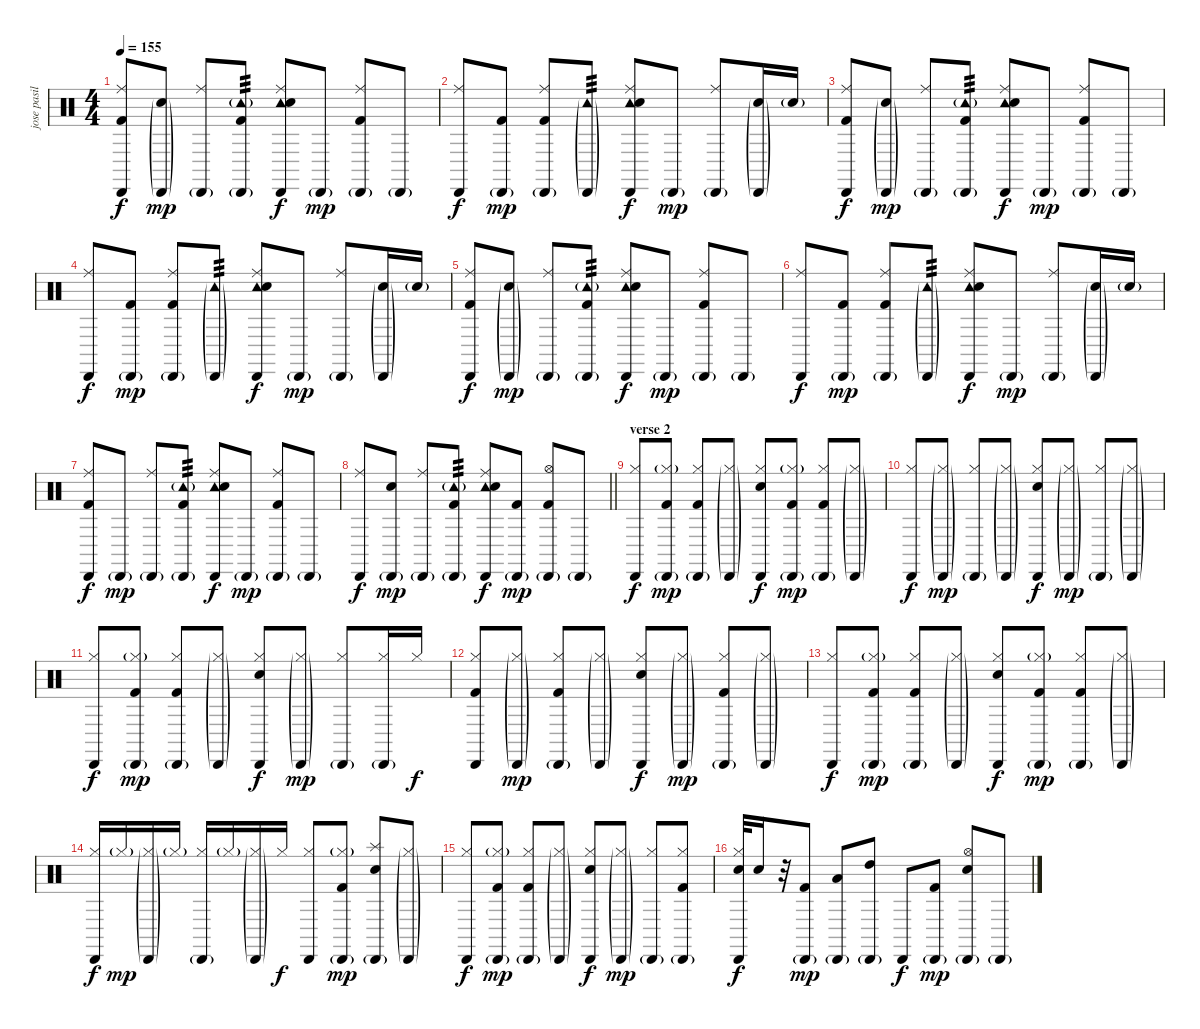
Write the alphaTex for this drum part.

\track ("jose pasillas" "jose pasil") {instrument percussion}
\staff {score}
\articulation defaults
\ts (4 4)
\tempo 155
\clef neutral
\ks c
("Cabasa (hit)" "Ride (middle)" "Kick (hit) 2").8{dy f} ("Cabasa (hit)"{g} "Snare (hit) 2"{g}).8{dy mp} ("Cabasa (hit)"{g} "Ride (middle)").8 ("Cabasa (hit)"{g} "Tambourine (hit)"{g} "Kick (hit) 2").8{tp 3} ("Cabasa (hit)" "Tambourine (hit)" "Ride (middle)" "Snare (hit) 2").8{dy f} "Cabasa (hit)"{g}.8{dy mp} ("Cabasa (hit)"{g} "Ride (middle)" "Kick (hit) 2").8 "Cabasa (hit)"{g}.8 |
("Cabasa (hit)" "Ride (middle)").8{dy f} ("Cabasa (hit)"{g} "Kick (hit) 2").8{dy mp} ("Cabasa (hit)"{g} "Ride (middle)" "Kick (hit) 2").8 ("Cabasa (hit)"{g} "Tambourine (hit)"{g}).8{tp 3} ("Cabasa (hit)" "Tambourine (hit)" "Ride (middle)" "Snare (hit) 2").8{dy f} "Cabasa (hit)"{g}.8{dy mp} ("Cabasa (hit)"{g} "Ride (middle)").8 ("Cabasa (hit)"{g} "Snare (hit) 2"{g}).16 "Snare (hit) 2"{g}.16 |
("Cabasa (hit)" "Ride (middle)" "Kick (hit) 2").8{dy f} ("Cabasa (hit)"{g} "Snare (hit) 2"{g}).8{dy mp} ("Cabasa (hit)"{g} "Ride (middle)").8 ("Cabasa (hit)"{g} "Tambourine (hit)"{g} "Kick (hit) 2").8{tp 3} ("Cabasa (hit)" "Tambourine (hit)" "Ride (middle)" "Snare (hit) 2").8{dy f} "Cabasa (hit)"{g}.8{dy mp} ("Cabasa (hit)"{g} "Ride (middle)" "Kick (hit) 2").8 "Cabasa (hit)"{g}.8 |
("Cabasa (hit)" "Ride (middle)").8{dy f} ("Cabasa (hit)"{g} "Kick (hit) 2").8{dy mp} ("Cabasa (hit)"{g} "Ride (middle)" "Kick (hit) 2").8 ("Cabasa (hit)"{g} "Tambourine (hit)"{g}).8{tp 3} ("Cabasa (hit)" "Tambourine (hit)" "Ride (middle)" "Snare (hit) 2").8{dy f} "Cabasa (hit)"{g}.8{dy mp} ("Cabasa (hit)"{g} "Ride (middle)").8 ("Cabasa (hit)"{g} "Snare (hit) 2"{g}).16 "Snare (hit) 2"{g}.16 |
("Cabasa (hit)" "Ride (middle)" "Kick (hit) 2").8{dy f} ("Cabasa (hit)"{g} "Snare (hit) 2"{g}).8{dy mp} ("Cabasa (hit)"{g} "Ride (middle)").8 ("Cabasa (hit)"{g} "Tambourine (hit)"{g} "Kick (hit) 2").8{tp 3} ("Cabasa (hit)" "Tambourine (hit)" "Ride (middle)" "Snare (hit) 2").8{dy f} "Cabasa (hit)"{g}.8{dy mp} ("Cabasa (hit)"{g} "Ride (middle)" "Kick (hit) 2").8 "Cabasa (hit)"{g}.8 |
("Cabasa (hit)" "Ride (middle)").8{dy f} ("Cabasa (hit)"{g} "Kick (hit) 2").8{dy mp} ("Cabasa (hit)"{g} "Ride (middle)" "Kick (hit) 2").8 ("Cabasa (hit)"{g} "Tambourine (hit)"{g}).8{tp 3} ("Cabasa (hit)" "Tambourine (hit)" "Ride (middle)" "Snare (hit) 2").8{dy f} "Cabasa (hit)"{g}.8{dy mp} ("Cabasa (hit)"{g} "Ride (middle)").8 ("Cabasa (hit)"{g} "Snare (hit) 2"{g}).16 "Snare (hit) 2"{g}.16 |
("Cabasa (hit)" "Ride (middle)" "Kick (hit) 2").8{dy f} "Cabasa (hit)"{g}.8{dy mp} ("Cabasa (hit)"{g} "Ride (middle)").8 ("Cabasa (hit)"{g} "Tambourine (hit)"{g} "Kick (hit) 2").8{tp 3} ("Cabasa (hit)" "Tambourine (hit)" "Ride (middle)" "Snare (hit) 2").8{dy f} "Cabasa (hit)"{g}.8{dy mp} ("Cabasa (hit)"{g} "Ride (middle)" "Kick (hit) 2").8 "Cabasa (hit)"{g}.8 |
\barLineRight lightlight
("Cabasa (hit)" "Ride (middle)").8{dy f} ("Cabasa (hit)"{g} "Snare (hit) 2").8{dy mp} ("Cabasa (hit)"{g} "Ride (middle)").8 ("Cabasa (hit)"{g} "Tambourine (hit)"{g} "Kick (hit) 2").8{tp 3} ("Cabasa (hit)" "Tambourine (hit)" "Ride (middle)" "Snare (hit) 2").8{dy f} ("Cabasa (hit)"{g} "Kick (hit) 2").8{dy mp} ("Cabasa (hit)"{g} "Hi-Hat (open)" "Kick (hit) 2").8 "Cabasa (hit)"{g}.8 |
\section ("" "verse 2")
("Cabasa (hit)" "Hi-Hat (closed)").8{dy f} ("Cabasa (hit)"{g} "Hi-Hat (closed)"{g} "Kick (hit) 2").8{dy mp} ("Cabasa (hit)"{g} "Hi-Hat (closed)" "Kick (hit) 2").8 ("Cabasa (hit)"{g} "Hi-Hat (closed)"{g}).8 ("Cabasa (hit)" "Hi-Hat (closed)" "Snare (hit) 2").8{dy f} ("Cabasa (hit)"{g} "Hi-Hat (closed)"{g} "Kick (hit) 2").8{dy mp} ("Cabasa (hit)"{g} "Hi-Hat (closed)" "Kick (hit) 2").8 ("Cabasa (hit)"{g} "Hi-Hat (closed)"{g}).8 |
("Cabasa (hit)" "Hi-Hat (closed)").8{dy f} ("Cabasa (hit)"{g} "Hi-Hat (closed)"{g}).8{dy mp} ("Cabasa (hit)"{g} "Hi-Hat (closed)").8 ("Cabasa (hit)"{g} "Hi-Hat (closed)"{g}).8 ("Cabasa (hit)" "Hi-Hat (closed)" "Snare (hit) 2").8{dy f} ("Cabasa (hit)"{g} "Hi-Hat (closed)"{g}).8{dy mp} ("Cabasa (hit)"{g} "Hi-Hat (closed)").8 ("Cabasa (hit)"{g} "Hi-Hat (closed)"{g}).8 |
("Cabasa (hit)" "Hi-Hat (closed)").8{dy f} ("Cabasa (hit)"{g} "Hi-Hat (closed)"{g} "Kick (hit) 2").8{dy mp} ("Cabasa (hit)"{g} "Hi-Hat (closed)" "Kick (hit) 2").8 ("Cabasa (hit)"{g} "Hi-Hat (closed)"{g}).8 ("Cabasa (hit)" "Hi-Hat (closed)" "Snare (hit) 2").8{dy f} ("Cabasa (hit)"{g} "Hi-Hat (closed)"{g}).8{dy mp} ("Cabasa (hit)"{g} "Hi-Hat (closed)").8 ("Cabasa (hit)"{g} "Hi-Hat (closed)").16 "Hi-Hat (closed)".16{dy f} |
("Cabasa (hit)" "Hi-Hat (closed)" "Kick (hit) 2").8 ("Cabasa (hit)"{g} "Hi-Hat (closed)"{g}).8{dy mp} ("Cabasa (hit)"{g} "Hi-Hat (closed)" "Kick (hit) 2").8 ("Cabasa (hit)"{g} "Hi-Hat (closed)"{g}).8 ("Cabasa (hit)" "Hi-Hat (closed)" "Snare (hit) 2").8{dy f} ("Cabasa (hit)"{g} "Hi-Hat (closed)"{g}).8{dy mp} ("Cabasa (hit)"{g} "Hi-Hat (closed)" "Kick (hit) 2").8 ("Cabasa (hit)"{g} "Hi-Hat (closed)"{g}).8 |
("Cabasa (hit)" "Hi-Hat (closed)").8{dy f} ("Cabasa (hit)"{g} "Hi-Hat (closed)"{g} "Kick (hit) 2").8{dy mp} ("Cabasa (hit)"{g} "Hi-Hat (closed)" "Kick (hit) 2").8 ("Cabasa (hit)"{g} "Hi-Hat (closed)"{g}).8 ("Cabasa (hit)" "Hi-Hat (closed)" "Snare (hit) 2").8{dy f} ("Cabasa (hit)"{g} "Hi-Hat (closed)"{g} "Kick (hit) 2").8{dy mp} ("Cabasa (hit)"{g} "Hi-Hat (closed)" "Kick (hit) 2").8 ("Cabasa (hit)"{g} "Hi-Hat (closed)"{g}).8 |
("Cabasa (hit)" "Hi-Hat (closed)").16{dy f} "Hi-Hat (closed)"{g}.16{dy mp} ("Cabasa (hit)"{g} "Hi-Hat (closed)"{g}).16 "Hi-Hat (closed)"{g}.16 ("Cabasa (hit)"{g} "Hi-Hat (closed)").16 "Hi-Hat (closed)"{g}.16 ("Cabasa (hit)"{g} "Hi-Hat (closed)"{g}).16 "Hi-Hat (closed)".16{dy f} ("Cabasa (hit)" "Hi-Hat (closed)").8 ("Cabasa (hit)"{g} "Hi-Hat (closed)"{g} "Kick (hit) 2").8{dy mp} ("Cabasa (hit)"{g} "Splash (hit)" "Snare (hit) 2").8 ("Cabasa (hit)"{g} "Hi-Hat (closed)"{g}).8 |
("Cabasa (hit)" "Hi-Hat (closed)").8{dy f} ("Cabasa (hit)"{g} "Hi-Hat (closed)"{g} "Kick (hit) 2").8{dy mp} ("Cabasa (hit)"{g} "Hi-Hat (closed)" "Kick (hit) 2").8 ("Cabasa (hit)"{g} "Hi-Hat (closed)"{g}).8 ("Cabasa (hit)" "Hi-Hat (closed)" "Snare (hit) 2").8{dy f} ("Cabasa (hit)"{g} "Hi-Hat (closed)"{g}).8{dy mp} ("Cabasa (hit)"{g} "Hi-Hat (closed)").8 ("Cabasa (hit)"{g} "Hi-Hat (closed)" "Kick (hit) 2").8 |
("Cabasa (hit)" "Hi-Hat (closed)" "Snare (hit) 2").32{dy f} "Snare (hit) 2".16 r.32 ("Cabasa (hit)"{g} "Kick (hit) 2").8{dy mp} ("Cabasa (hit)"{g} "Low Tom (hit)").8 ("Cabasa (hit)"{g} "High Tom (hit)").8 "Cabasa (hit)".8{dy f} ("Cabasa (hit)"{g} "Kick (hit) 2").8{dy mp} ("Cabasa (hit)"{g} "Hi-Hat (open)" "Snare (hit) 2").8 "Cabasa (hit)"{g}.8
